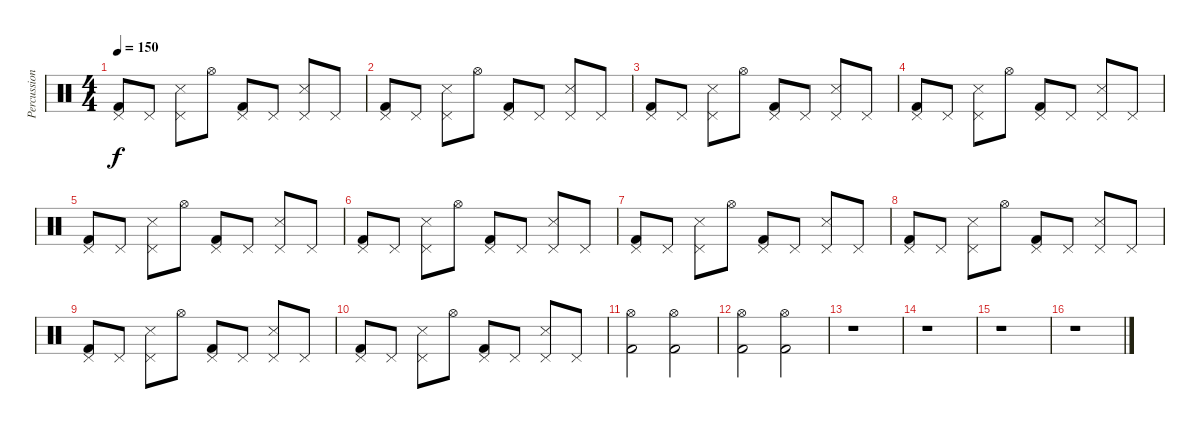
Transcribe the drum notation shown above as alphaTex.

\track ("Percussion" "Percussion") {instrument percussion}
\staff {score}
\articulation defaults
\ts (4 4)
\tempo 150
\clef neutral
\ks c
("Kick (hit) 2" "Pedal Hi-Hat (hit)").8{dy f} "Pedal Hi-Hat (hit)".8 ("Snare (side stick) 3" "Pedal Hi-Hat (hit)").8 "Hi-Hat (open)".8 ("Kick (hit) 2" "Pedal Hi-Hat (hit)").8 "Pedal Hi-Hat (hit)".8 ("Snare (side stick) 3" "Pedal Hi-Hat (hit)").8 "Pedal Hi-Hat (hit)".8 |
("Kick (hit) 2" "Pedal Hi-Hat (hit)").8 "Pedal Hi-Hat (hit)".8 ("Snare (side stick) 3" "Pedal Hi-Hat (hit)").8 "Hi-Hat (open)".8 ("Kick (hit) 2" "Pedal Hi-Hat (hit)").8 "Pedal Hi-Hat (hit)".8 ("Snare (side stick) 3" "Pedal Hi-Hat (hit)").8 "Pedal Hi-Hat (hit)".8 |
("Kick (hit) 2" "Pedal Hi-Hat (hit)").8 "Pedal Hi-Hat (hit)".8 ("Snare (side stick) 3" "Pedal Hi-Hat (hit)").8 "Hi-Hat (open)".8 ("Kick (hit) 2" "Pedal Hi-Hat (hit)").8 "Pedal Hi-Hat (hit)".8 ("Snare (side stick) 3" "Pedal Hi-Hat (hit)").8 "Pedal Hi-Hat (hit)".8 |
("Kick (hit) 2" "Pedal Hi-Hat (hit)").8 "Pedal Hi-Hat (hit)".8 ("Snare (side stick) 3" "Pedal Hi-Hat (hit)").8 "Hi-Hat (open)".8 ("Kick (hit) 2" "Pedal Hi-Hat (hit)").8 "Pedal Hi-Hat (hit)".8 ("Snare (side stick) 3" "Pedal Hi-Hat (hit)").8 "Pedal Hi-Hat (hit)".8 |
("Kick (hit) 2" "Pedal Hi-Hat (hit)").8 "Pedal Hi-Hat (hit)".8 ("Snare (side stick) 3" "Pedal Hi-Hat (hit)").8 "Hi-Hat (open)".8 ("Kick (hit) 2" "Pedal Hi-Hat (hit)").8 "Pedal Hi-Hat (hit)".8 ("Snare (side stick) 3" "Pedal Hi-Hat (hit)").8 "Pedal Hi-Hat (hit)".8 |
("Kick (hit) 2" "Pedal Hi-Hat (hit)").8 "Pedal Hi-Hat (hit)".8 ("Snare (side stick) 3" "Pedal Hi-Hat (hit)").8 "Hi-Hat (open)".8 ("Kick (hit) 2" "Pedal Hi-Hat (hit)").8 "Pedal Hi-Hat (hit)".8 ("Snare (side stick) 3" "Pedal Hi-Hat (hit)").8 "Pedal Hi-Hat (hit)".8 |
("Kick (hit) 2" "Pedal Hi-Hat (hit)").8 "Pedal Hi-Hat (hit)".8 ("Snare (side stick) 3" "Pedal Hi-Hat (hit)").8 "Hi-Hat (open)".8 ("Kick (hit) 2" "Pedal Hi-Hat (hit)").8 "Pedal Hi-Hat (hit)".8 ("Snare (side stick) 3" "Pedal Hi-Hat (hit)").8 "Pedal Hi-Hat (hit)".8 |
("Kick (hit) 2" "Pedal Hi-Hat (hit)").8 "Pedal Hi-Hat (hit)".8 ("Snare (side stick) 3" "Pedal Hi-Hat (hit)").8 "Hi-Hat (open)".8 ("Kick (hit) 2" "Pedal Hi-Hat (hit)").8 "Pedal Hi-Hat (hit)".8 ("Snare (side stick) 3" "Pedal Hi-Hat (hit)").8 "Pedal Hi-Hat (hit)".8 |
("Kick (hit) 2" "Pedal Hi-Hat (hit)").8 "Pedal Hi-Hat (hit)".8 ("Snare (side stick) 3" "Pedal Hi-Hat (hit)").8 "Hi-Hat (open)".8 ("Kick (hit) 2" "Pedal Hi-Hat (hit)").8 "Pedal Hi-Hat (hit)".8 ("Snare (side stick) 3" "Pedal Hi-Hat (hit)").8 "Pedal Hi-Hat (hit)".8 |
("Kick (hit) 2" "Pedal Hi-Hat (hit)").8 "Pedal Hi-Hat (hit)".8 ("Snare (side stick) 3" "Pedal Hi-Hat (hit)").8 "Hi-Hat (open)".8 ("Kick (hit) 2" "Pedal Hi-Hat (hit)").8 "Pedal Hi-Hat (hit)".8 ("Snare (side stick) 3" "Pedal Hi-Hat (hit)").8 "Pedal Hi-Hat (hit)".8 |
("Kick (hit) 2" "Hi-Hat (open)").2 ("Kick (hit) 2" "Hi-Hat (open)").2 |
("Kick (hit) 2" "Hi-Hat (open)").2 ("Kick (hit) 2" "Hi-Hat (open)").2 |
r.1 |
r.1 |
r.1 |
r.1
